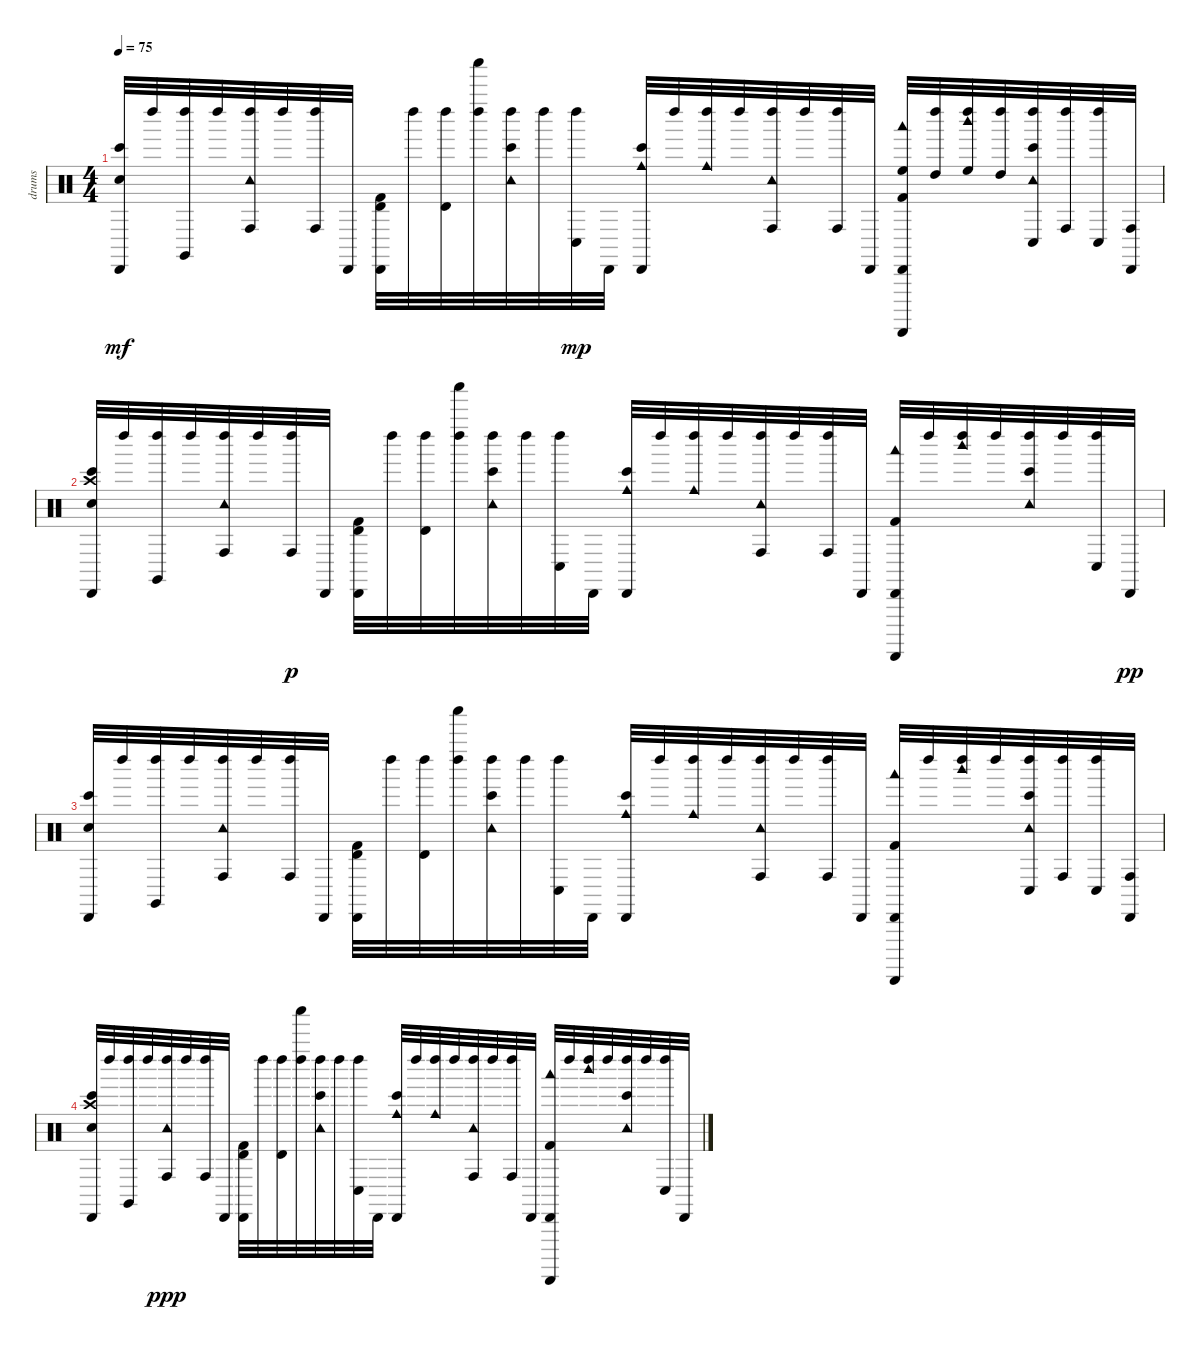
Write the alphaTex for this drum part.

\track ("drums" "drums") {instrument percussion}
\staff {score}
\articulation defaults
\ts (4 4)
\tempo 75
\clef neutral
\ks c
("Snare (hit) 2" "Bongo High (hit)" "Cabasa (hit)").32{dy mf} "Left Maraca (hit)".32 ("Claves (hit)" "Left Maraca (hit)").32 "Left Maraca (hit)".32 ("Tambourine (hit)" "Conga high (hit)" "Left Maraca (hit)").32 "Left Maraca (hit)".32 ("Conga high (hit)" "Left Maraca (hit)").32 "Cabasa (hit)".32 ("Timbale high (hit)" "Kick (hit) 2" "Cabasa (hit)").32 "Left Maraca (hit)".32 ("Timbale high (hit)" "Left Maraca (hit)").32 ("Shaker (hit)" "Left Maraca (hit)").32 ("Bongo High (hit)" "Tambourine (hit)" "Left Maraca (hit)").32 "Left Maraca (hit)".32 ("Conga low (hit)" "Left Maraca (hit)").32{dy mp} "Cabasa (hit)".32 ("Bongo High (hit)" "Cowbell medium (hit)" "Cabasa (hit)").32 "Left Maraca (hit)".32 ("Cowbell medium (hit)" "Left Maraca (hit)").32 "Left Maraca (hit)".32 ("Conga high (hit)" "Tambourine (hit)" "Left Maraca (hit)").32 "Left Maraca (hit)".32 ("Conga high (hit)" "Left Maraca (hit)").32 "Cabasa (hit)".32 ("High Floor Tom (hit)" "Kick (hit) 2" "Guiro (scrap-return)" "Woodblock low (hit)" "Cabasa (hit)").32 ("High Tom (hit)" "Left Maraca (hit)").32 ("High Floor Tom (hit)" "Woodblock high (hit)" "Left Maraca (hit)").32 ("High Tom (hit)" "Left Maraca (hit)").32 ("Conga low (hit)" "Bongo High (hit)" "Tambourine (hit)" "Left Maraca (hit)").32 ("Conga high (hit)" "Left Maraca (hit)").32 ("Conga low (hit)" "Left Maraca (hit)").32 ("Conga high (hit)" "Cabasa (hit)").32 |
("Bongo High (hit)" "Snare (hit) 2" "Crash high (hit)" "Cabasa (hit)").32 "Left Maraca (hit)".32 ("Claves (hit)" "Left Maraca (hit)").32 "Left Maraca (hit)".32 ("Conga high (hit)" "Tambourine (hit)" "Left Maraca (hit)").32 "Left Maraca (hit)".32 ("Conga high (hit)" "Left Maraca (hit)").32{dy p} "Cabasa (hit)".32 ("Timbale high (hit)" "Kick (hit) 2" "Cabasa (hit)").32 "Left Maraca (hit)".32 ("Timbale high (hit)" "Left Maraca (hit)").32 ("Shaker (hit)" "Left Maraca (hit)").32 ("Bongo High (hit)" "Tambourine (hit)" "Left Maraca (hit)").32 "Left Maraca (hit)".32 ("Conga low (hit)" "Left Maraca (hit)").32 "Cabasa (hit)".32 ("Bongo High (hit)" "Cowbell medium (hit)" "Cabasa (hit)").32 "Left Maraca (hit)".32 ("Cowbell medium (hit)" "Left Maraca (hit)").32 "Left Maraca (hit)".32 ("Conga high (hit)" "Tambourine (hit)" "Left Maraca (hit)").32 "Left Maraca (hit)".32 ("Conga high (hit)" "Left Maraca (hit)").32 "Cabasa (hit)".32 ("Woodblock low (hit)" "Guiro (scrap-return)" "Kick (hit) 2" "Cabasa (hit)").32 "Left Maraca (hit)".32 ("Woodblock high (hit)" "Left Maraca (hit)").32 "Left Maraca (hit)".32 ("Bongo High (hit)" "Tambourine (hit)" "Left Maraca (hit)").32 "Left Maraca (hit)".32 ("Conga low (hit)" "Left Maraca (hit)").32 "Cabasa (hit)".32{dy pp} |
("Snare (hit) 2" "Bongo High (hit)" "Cabasa (hit)").32 "Left Maraca (hit)".32 ("Claves (hit)" "Left Maraca (hit)").32 "Left Maraca (hit)".32 ("Conga high (hit)" "Tambourine (hit)" "Left Maraca (hit)").32 "Left Maraca (hit)".32 ("Conga high (hit)" "Left Maraca (hit)").32 "Cabasa (hit)".32 ("Timbale high (hit)" "Kick (hit) 2" "Cabasa (hit)").32 "Left Maraca (hit)".32 ("Timbale high (hit)" "Left Maraca (hit)").32 ("Shaker (hit)" "Left Maraca (hit)").32 ("Bongo High (hit)" "Tambourine (hit)" "Left Maraca (hit)").32 "Left Maraca (hit)".32 ("Conga low (hit)" "Left Maraca (hit)").32 "Cabasa (hit)".32 ("Bongo High (hit)" "Cowbell medium (hit)" "Cabasa (hit)").32 "Left Maraca (hit)".32 ("Cowbell medium (hit)" "Left Maraca (hit)").32 "Left Maraca (hit)".32 ("Conga high (hit)" "Tambourine (hit)" "Left Maraca (hit)").32 "Left Maraca (hit)".32 ("Conga high (hit)" "Left Maraca (hit)").32 "Cabasa (hit)".32 ("Kick (hit) 2" "Guiro (scrap-return)" "Woodblock low (hit)" "Cabasa (hit)").32 "Left Maraca (hit)".32 ("Woodblock high (hit)" "Left Maraca (hit)").32 "Left Maraca (hit)".32 ("Bongo High (hit)" "Conga low (hit)" "Tambourine (hit)" "Left Maraca (hit)").32 ("Conga high (hit)" "Left Maraca (hit)").32 ("Conga low (hit)" "Left Maraca (hit)").32 ("Conga high (hit)" "Cabasa (hit)").32 |
("Crash high (hit)" "Snare (hit) 2" "Bongo High (hit)" "Cabasa (hit)").32 "Left Maraca (hit)".32 ("Claves (hit)" "Left Maraca (hit)").32 "Left Maraca (hit)".32 ("Conga high (hit)" "Tambourine (hit)" "Left Maraca (hit)").32{dy ppp} "Left Maraca (hit)".32 ("Conga high (hit)" "Left Maraca (hit)").32 "Cabasa (hit)".32 ("Timbale high (hit)" "Kick (hit) 2" "Cabasa (hit)").32 "Left Maraca (hit)".32 ("Timbale high (hit)" "Left Maraca (hit)").32 ("Shaker (hit)" "Left Maraca (hit)").32 ("Bongo High (hit)" "Tambourine (hit)" "Left Maraca (hit)").32 "Left Maraca (hit)".32 ("Conga low (hit)" "Left Maraca (hit)").32 "Cabasa (hit)".32 ("Bongo High (hit)" "Cowbell medium (hit)" "Cabasa (hit)").32 "Left Maraca (hit)".32 ("Cowbell medium (hit)" "Left Maraca (hit)").32 "Left Maraca (hit)".32 ("Conga high (hit)" "Tambourine (hit)" "Left Maraca (hit)").32 "Left Maraca (hit)".32 ("Conga high (hit)" "Left Maraca (hit)").32 "Cabasa (hit)".32 ("Kick (hit) 2" "Guiro (scrap-return)" "Woodblock low (hit)" "Cabasa (hit)").32 "Left Maraca (hit)".32 ("Woodblock high (hit)" "Left Maraca (hit)").32 "Left Maraca (hit)".32 ("Bongo High (hit)" "Tambourine (hit)" "Left Maraca (hit)").32 "Left Maraca (hit)".32 ("Conga low (hit)" "Left Maraca (hit)").32 "Cabasa (hit)".32
